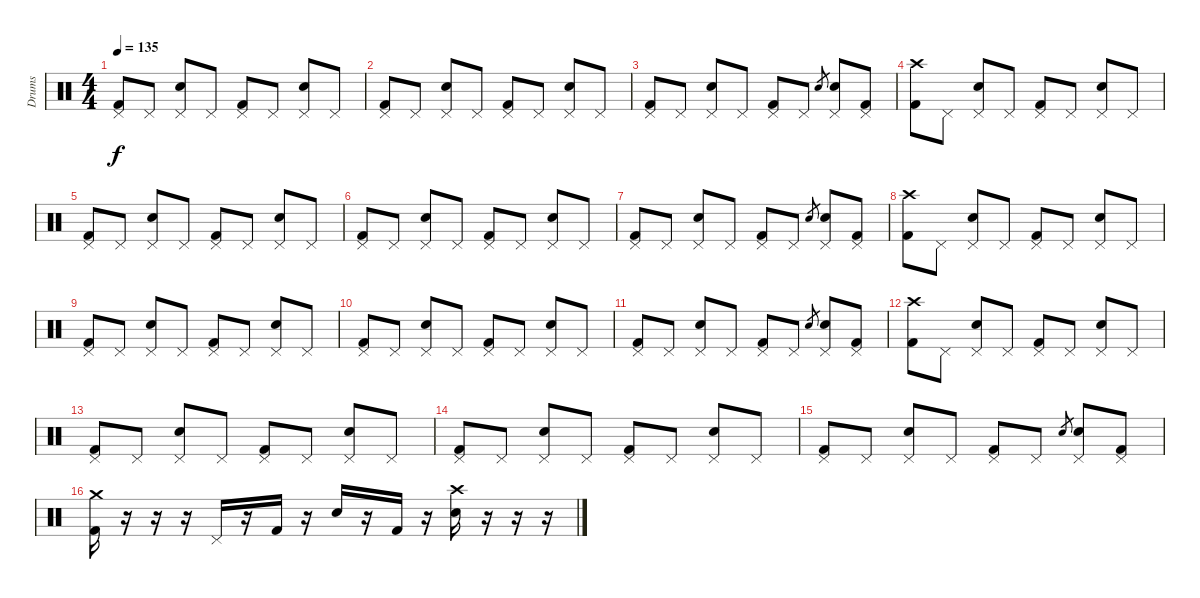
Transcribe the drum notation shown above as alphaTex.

\track ("Drums" "Drums") {instrument percussion}
\staff {score}
\articulation defaults
\ts (4 4)
\tempo 135
\clef neutral
\ks c
("Pedal Hi-Hat (hit)" "Kick (hit) 2").8{dy f} "Pedal Hi-Hat (hit)".8 ("Pedal Hi-Hat (hit)" "Snare (hit) 2").8 "Pedal Hi-Hat (hit)".8 ("Pedal Hi-Hat (hit)" "Kick (hit) 2").8 "Pedal Hi-Hat (hit)".8 ("Pedal Hi-Hat (hit)" "Snare (hit) 2").8 "Pedal Hi-Hat (hit)".8 |
("Pedal Hi-Hat (hit)" "Kick (hit) 2").8 "Pedal Hi-Hat (hit)".8 ("Pedal Hi-Hat (hit)" "Snare (hit) 2").8 "Pedal Hi-Hat (hit)".8 ("Pedal Hi-Hat (hit)" "Kick (hit) 2").8 "Pedal Hi-Hat (hit)".8 ("Pedal Hi-Hat (hit)" "Snare (hit) 2").8 "Pedal Hi-Hat (hit)".8 |
("Pedal Hi-Hat (hit)" "Kick (hit) 2").8 "Pedal Hi-Hat (hit)".8 ("Pedal Hi-Hat (hit)" "Snare (hit) 2").8 "Pedal Hi-Hat (hit)".8 ("Pedal Hi-Hat (hit)" "Kick (hit) 2").8 "Pedal Hi-Hat (hit)".8 "Snare (hit) 2".8{gr} ("Pedal Hi-Hat (hit)" "Snare (hit) 2").8 ("Pedal Hi-Hat (hit)" "Kick (hit) 2").8 |
("Crash high (hit)" "Kick (hit) 2").8 "Pedal Hi-Hat (hit)".8 ("Pedal Hi-Hat (hit)" "Snare (hit) 2").8 "Pedal Hi-Hat (hit)".8 ("Pedal Hi-Hat (hit)" "Kick (hit) 2").8 "Pedal Hi-Hat (hit)".8 ("Pedal Hi-Hat (hit)" "Snare (hit) 2").8 "Pedal Hi-Hat (hit)".8 |
("Pedal Hi-Hat (hit)" "Kick (hit) 2").8 "Pedal Hi-Hat (hit)".8 ("Pedal Hi-Hat (hit)" "Snare (hit) 2").8 "Pedal Hi-Hat (hit)".8 ("Pedal Hi-Hat (hit)" "Kick (hit) 2").8 "Pedal Hi-Hat (hit)".8 ("Pedal Hi-Hat (hit)" "Snare (hit) 2").8 "Pedal Hi-Hat (hit)".8 |
("Pedal Hi-Hat (hit)" "Kick (hit) 2").8 "Pedal Hi-Hat (hit)".8 ("Pedal Hi-Hat (hit)" "Snare (hit) 2").8 "Pedal Hi-Hat (hit)".8 ("Pedal Hi-Hat (hit)" "Kick (hit) 2").8 "Pedal Hi-Hat (hit)".8 ("Pedal Hi-Hat (hit)" "Snare (hit) 2").8 "Pedal Hi-Hat (hit)".8 |
("Pedal Hi-Hat (hit)" "Kick (hit) 2").8 "Pedal Hi-Hat (hit)".8 ("Pedal Hi-Hat (hit)" "Snare (hit) 2").8 "Pedal Hi-Hat (hit)".8 ("Pedal Hi-Hat (hit)" "Kick (hit) 2").8 "Pedal Hi-Hat (hit)".8 "Snare (hit) 2".8{gr} ("Pedal Hi-Hat (hit)" "Snare (hit) 2").8 ("Pedal Hi-Hat (hit)" "Kick (hit) 2").8 |
("Crash high (hit)" "Kick (hit) 2").8 "Pedal Hi-Hat (hit)".8 ("Pedal Hi-Hat (hit)" "Snare (hit) 2").8 "Pedal Hi-Hat (hit)".8 ("Pedal Hi-Hat (hit)" "Kick (hit) 2").8 "Pedal Hi-Hat (hit)".8 ("Pedal Hi-Hat (hit)" "Snare (hit) 2").8 "Pedal Hi-Hat (hit)".8 |
("Pedal Hi-Hat (hit)" "Kick (hit) 2").8 "Pedal Hi-Hat (hit)".8 ("Pedal Hi-Hat (hit)" "Snare (hit) 2").8 "Pedal Hi-Hat (hit)".8 ("Pedal Hi-Hat (hit)" "Kick (hit) 2").8 "Pedal Hi-Hat (hit)".8 ("Pedal Hi-Hat (hit)" "Snare (hit) 2").8 "Pedal Hi-Hat (hit)".8 |
("Pedal Hi-Hat (hit)" "Kick (hit) 2").8 "Pedal Hi-Hat (hit)".8 ("Pedal Hi-Hat (hit)" "Snare (hit) 2").8 "Pedal Hi-Hat (hit)".8 ("Pedal Hi-Hat (hit)" "Kick (hit) 2").8 "Pedal Hi-Hat (hit)".8 ("Pedal Hi-Hat (hit)" "Snare (hit) 2").8 "Pedal Hi-Hat (hit)".8 |
("Pedal Hi-Hat (hit)" "Kick (hit) 2").8 "Pedal Hi-Hat (hit)".8 ("Pedal Hi-Hat (hit)" "Snare (hit) 2").8 "Pedal Hi-Hat (hit)".8 ("Pedal Hi-Hat (hit)" "Kick (hit) 2").8 "Pedal Hi-Hat (hit)".8 "Snare (hit) 2".8{gr} ("Pedal Hi-Hat (hit)" "Snare (hit) 2").8 ("Pedal Hi-Hat (hit)" "Kick (hit) 2").8 |
("Crash high (hit)" "Kick (hit) 2").8 "Pedal Hi-Hat (hit)".8 ("Pedal Hi-Hat (hit)" "Snare (hit) 2").8 "Pedal Hi-Hat (hit)".8 ("Pedal Hi-Hat (hit)" "Kick (hit) 2").8 "Pedal Hi-Hat (hit)".8 ("Pedal Hi-Hat (hit)" "Snare (hit) 2").8 "Pedal Hi-Hat (hit)".8 |
("Pedal Hi-Hat (hit)" "Kick (hit) 2").8 "Pedal Hi-Hat (hit)".8 ("Pedal Hi-Hat (hit)" "Snare (hit) 2").8 "Pedal Hi-Hat (hit)".8 ("Pedal Hi-Hat (hit)" "Kick (hit) 2").8 "Pedal Hi-Hat (hit)".8 ("Pedal Hi-Hat (hit)" "Snare (hit) 2").8 "Pedal Hi-Hat (hit)".8 |
("Pedal Hi-Hat (hit)" "Kick (hit) 2").8 "Pedal Hi-Hat (hit)".8 ("Pedal Hi-Hat (hit)" "Snare (hit) 2").8 "Pedal Hi-Hat (hit)".8 ("Pedal Hi-Hat (hit)" "Kick (hit) 2").8 "Pedal Hi-Hat (hit)".8 ("Pedal Hi-Hat (hit)" "Snare (hit) 2").8 "Pedal Hi-Hat (hit)".8 |
("Pedal Hi-Hat (hit)" "Kick (hit) 2").8 "Pedal Hi-Hat (hit)".8 ("Pedal Hi-Hat (hit)" "Snare (hit) 2").8 "Pedal Hi-Hat (hit)".8 ("Pedal Hi-Hat (hit)" "Kick (hit) 2").8 "Pedal Hi-Hat (hit)".8 "Snare (hit) 2".8{gr} ("Pedal Hi-Hat (hit)" "Snare (hit) 2").8 ("Pedal Hi-Hat (hit)" "Kick (hit) 2").8 |
("Crash medium (hit)" "Kick (hit) 2").16 r.16 r.16 r.16 "Pedal Hi-Hat (hit)".16 r.16 "Kick (hit) 2".16 r.16 "Snare (hit) 2".16 r.16 "Kick (hit) 2".16 r.16 ("Crash high (hit)" "Snare (hit) 2").16 r.16 r.16 r.16
